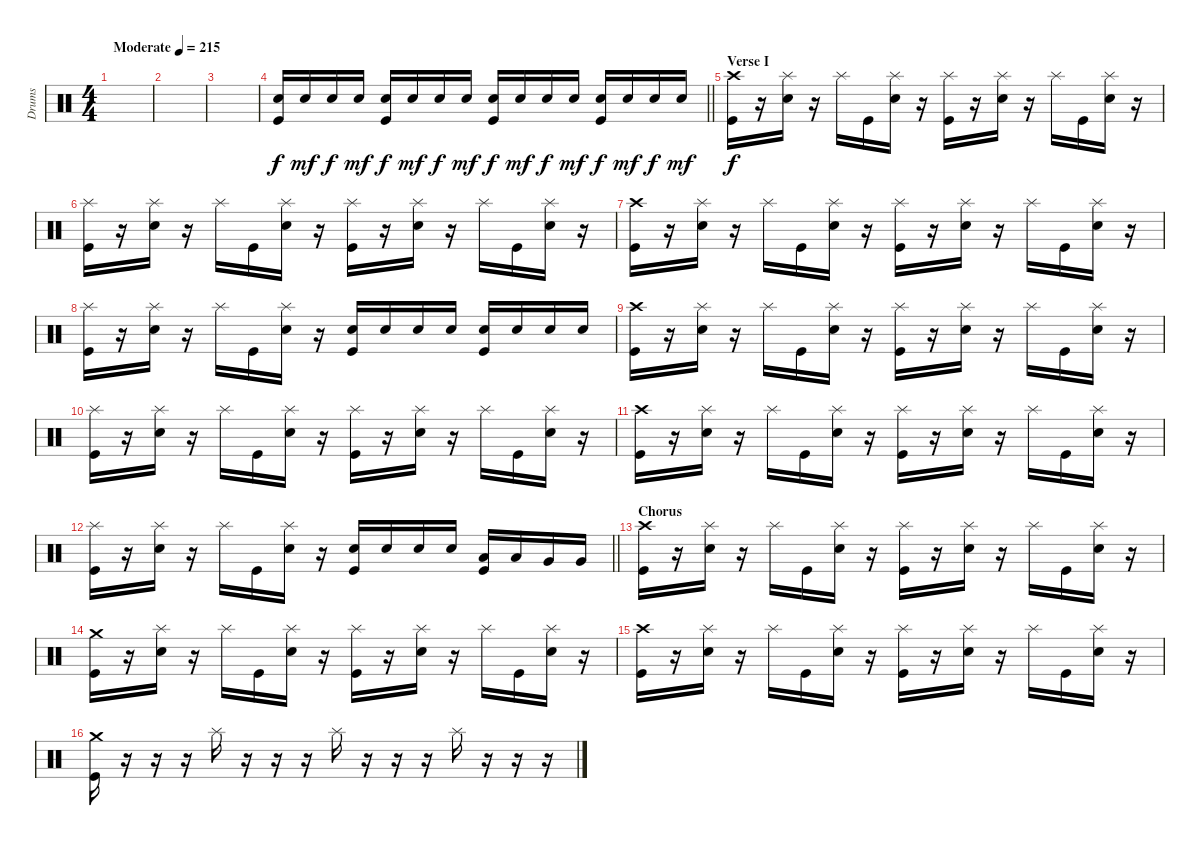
\track ("Drums" "Drums") {instrument percussion}
\staff {score}
\articulation defaults
\ts (4 4)
\tempo (215 "Moderate")
\clef neutral
\ks c
|
|
|
\barLineRight lightlight
("Electric Snare (hit)" "Kick (hit)").16 "Electric Snare (hit)".16{dy mf} "Electric Snare (hit)".16{dy f} "Electric Snare (hit)".16{dy mf} ("Electric Snare (hit)" "Kick (hit)").16{dy f} "Electric Snare (hit)".16{dy mf} "Electric Snare (hit)".16{dy f} "Electric Snare (hit)".16{dy mf} ("Electric Snare (hit)" "Kick (hit)").16{dy f} "Electric Snare (hit)".16{dy mf} "Electric Snare (hit)".16{dy f} "Electric Snare (hit)".16{dy mf} ("Electric Snare (hit)" "Kick (hit)").16{dy f} "Electric Snare (hit)".16{dy mf} "Electric Snare (hit)".16{dy f} "Electric Snare (hit)".16{dy mf} |
\section ("" "Verse I")
("Crash high (hit)" "Kick (hit)").16{dy f} r.16 ("Splash (hit)" "Electric Snare (hit)").16 r.16 "Splash (hit)".16 "Kick (hit)".16 ("Splash (hit)" "Electric Snare (hit)").16 r.16 ("Splash (hit)" "Kick (hit)").16 r.16 ("Splash (hit)" "Electric Snare (hit)").16 r.16 "Splash (hit)".16 "Kick (hit)".16 ("Splash (hit)" "Electric Snare (hit)").16 r.16 |
("Splash (hit)" "Kick (hit)").16 r.16 ("Splash (hit)" "Electric Snare (hit)").16 r.16 "Splash (hit)".16 "Kick (hit)".16 ("Splash (hit)" "Electric Snare (hit)").16 r.16 ("Splash (hit)" "Kick (hit)").16 r.16 ("Splash (hit)" "Electric Snare (hit)").16 r.16 "Splash (hit)".16 "Kick (hit)".16 ("Splash (hit)" "Electric Snare (hit)").16 r.16 |
("Crash high (hit)" "Kick (hit)").16 r.16 ("Splash (hit)" "Electric Snare (hit)").16 r.16 "Splash (hit)".16 "Kick (hit)".16 ("Splash (hit)" "Electric Snare (hit)").16 r.16 ("Splash (hit)" "Kick (hit)").16 r.16 ("Splash (hit)" "Electric Snare (hit)").16 r.16 "Splash (hit)".16 "Kick (hit)".16 ("Splash (hit)" "Electric Snare (hit)").16 r.16 |
("Splash (hit)" "Kick (hit)").16 r.16 ("Splash (hit)" "Electric Snare (hit)").16 r.16 "Splash (hit)".16 "Kick (hit)".16 ("Splash (hit)" "Electric Snare (hit)").16 r.16 ("Electric Snare (hit)" "Kick (hit)").16 "Electric Snare (hit)".16 "Electric Snare (hit)".16 "Electric Snare (hit)".16 ("Electric Snare (hit)" "Kick (hit)").16 "Electric Snare (hit)".16 "Electric Snare (hit)".16 "Electric Snare (hit)".16 |
("Crash high (hit)" "Kick (hit)").16 r.16 ("Splash (hit)" "Electric Snare (hit)").16 r.16 "Splash (hit)".16 "Kick (hit)".16 ("Splash (hit)" "Electric Snare (hit)").16 r.16 ("Splash (hit)" "Kick (hit)").16 r.16 ("Splash (hit)" "Electric Snare (hit)").16 r.16 "Splash (hit)".16 "Kick (hit)".16 ("Splash (hit)" "Electric Snare (hit)").16 r.16 |
("Splash (hit)" "Kick (hit)").16 r.16 ("Splash (hit)" "Electric Snare (hit)").16 r.16 "Splash (hit)".16 "Kick (hit)".16 ("Splash (hit)" "Electric Snare (hit)").16 r.16 ("Splash (hit)" "Kick (hit)").16 r.16 ("Splash (hit)" "Electric Snare (hit)").16 r.16 "Splash (hit)".16 "Kick (hit)".16 ("Splash (hit)" "Electric Snare (hit)").16 r.16 |
("Crash high (hit)" "Kick (hit)").16 r.16 ("Splash (hit)" "Electric Snare (hit)").16 r.16 "Splash (hit)".16 "Kick (hit)".16 ("Splash (hit)" "Electric Snare (hit)").16 r.16 ("Splash (hit)" "Kick (hit)").16 r.16 ("Splash (hit)" "Electric Snare (hit)").16 r.16 "Splash (hit)".16 "Kick (hit)".16 ("Splash (hit)" "Electric Snare (hit)").16 r.16 |
\barLineRight lightlight
("Splash (hit)" "Kick (hit)").16 r.16 ("Splash (hit)" "Electric Snare (hit)").16 r.16 "Splash (hit)".16 "Kick (hit)".16 ("Splash (hit)" "Electric Snare (hit)").16 r.16 ("Electric Snare (hit)" "Kick (hit)").16 "Electric Snare (hit)".16 "Electric Snare (hit)".16 "Electric Snare (hit)".16 ("Low Tom (hit)" "Kick (hit)").16 "Low Tom (hit)".16 "Very Low Tom (hit)".16 "Very Low Tom (hit)".16 |
\section ("" "Chorus")
("Crash high (hit)" "Kick (hit)").16 r.16 ("Splash (hit)" "Electric Snare (hit)").16 r.16 "Splash (hit)".16 "Kick (hit)".16 ("Splash (hit)" "Electric Snare (hit)").16 r.16 ("Splash (hit)" "Kick (hit)").16 r.16 ("Splash (hit)" "Electric Snare (hit)").16 r.16 "Splash (hit)".16 "Kick (hit)".16 ("Splash (hit)" "Electric Snare (hit)").16 r.16 |
("Crash medium (hit)" "Kick (hit)").16 r.16 ("Splash (hit)" "Electric Snare (hit)").16 r.16 "Splash (hit)".16 "Kick (hit)".16 ("Splash (hit)" "Electric Snare (hit)").16 r.16 ("Splash (hit)" "Kick (hit)").16 r.16 ("Splash (hit)" "Electric Snare (hit)").16 r.16 "Splash (hit)".16 "Kick (hit)".16 ("Splash (hit)" "Electric Snare (hit)").16 r.16 |
("Crash high (hit)" "Kick (hit)").16 r.16 ("Splash (hit)" "Electric Snare (hit)").16 r.16 "Splash (hit)".16 "Kick (hit)".16 ("Splash (hit)" "Electric Snare (hit)").16 r.16 ("Splash (hit)" "Kick (hit)").16 r.16 ("Splash (hit)" "Electric Snare (hit)").16 r.16 "Splash (hit)".16 "Kick (hit)".16 ("Splash (hit)" "Electric Snare (hit)").16 r.16 |
("Crash medium (hit)" "Kick (hit)").16 r.16 r.16 r.16 "Splash (hit)".16 r.16 r.16 r.16 "Splash (hit)".16 r.16 r.16 r.16 "Splash (hit)".16 r.16 r.16 r.16
